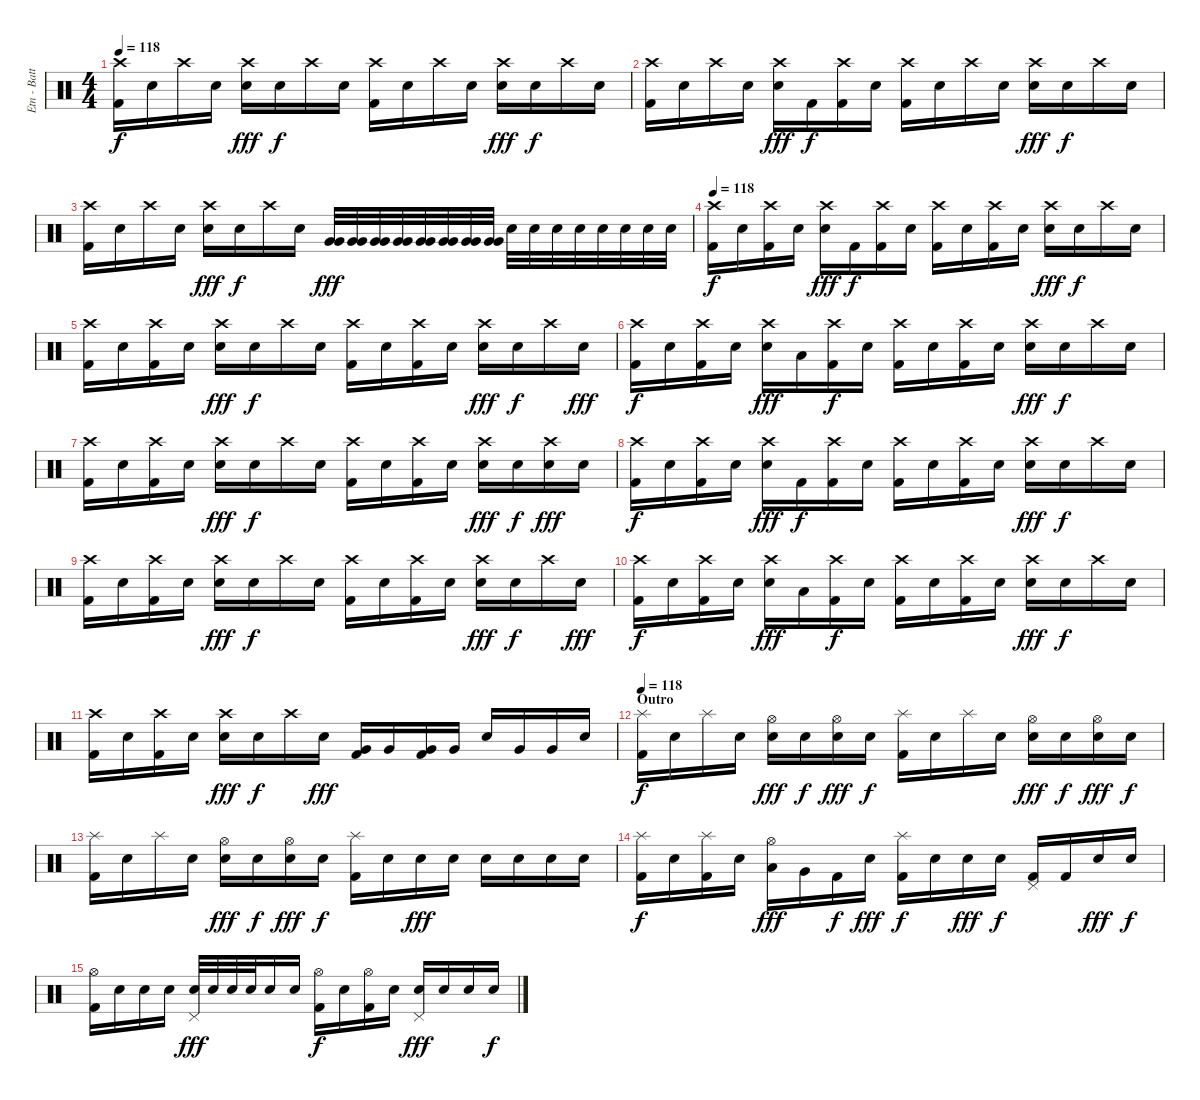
\track ("Etn - Batterie" "Etn - Batt") {instrument percussion}
\staff {score}
\articulation defaults
\ts (4 4)
\tempo 118
\clef neutral
\ks c
("Crash high (hit)" "Kick (hit) 2").16{dy f} "Snare (hit)".16 "Crash high (hit)".16 "Snare (hit)".16 ("Crash high (hit)" "Electric Snare (hit)").16{dy fff} "Snare (hit)".16{dy f} "Crash high (hit)".16 "Snare (hit)".16 ("Crash high (hit)" "Kick (hit) 2").16 "Snare (hit)".16 "Crash high (hit)".16 "Snare (hit)".16 ("Crash high (hit)" "Electric Snare (hit)").16{dy fff} "Snare (hit)".16{dy f} "Crash high (hit)".16 "Snare (hit)".16 |
("Crash high (hit)" "Kick (hit) 2").16 "Snare (hit)".16 "Crash high (hit)".16 "Snare (hit)".16 ("Crash high (hit)" "Electric Snare (hit)").16{dy fff} "Kick (hit) 2".16{dy f} ("Crash high (hit)" "Kick (hit) 2").16 "Snare (hit)".16 ("Crash high (hit)" "Kick (hit) 2").16 "Snare (hit)".16 "Crash high (hit)".16 "Snare (hit)".16 ("Crash high (hit)" "Electric Snare (hit)").16{dy fff} "Snare (hit)".16{dy f} "Crash high (hit)".16 "Snare (hit)".16 |
("Crash high (hit)" "Kick (hit) 2").16 "Snare (hit)".16 "Crash high (hit)".16 "Snare (hit)".16 ("Crash high (hit)" "Electric Snare (hit)").16{dy fff} "Snare (hit)".16{dy f} "Crash high (hit)".16 "Snare (hit)".16 ("Very Low Tom (hit)" "Very Low Tom (hit)").32{dy fff} ("Very Low Tom (hit)" "Very Low Tom (hit)").32 ("Very Low Tom (hit)" "Very Low Tom (hit)").32 ("Very Low Tom (hit)" "Very Low Tom (hit)").32 ("Very Low Tom (hit)" "Very Low Tom (hit)").32 ("Very Low Tom (hit)" "Very Low Tom (hit)").32 ("Very Low Tom (hit)" "Very Low Tom (hit)").32 ("Very Low Tom (hit)" "Very Low Tom (hit)").32 "Electric Snare (hit)".32 "Electric Snare (hit)".32 "Electric Snare (hit)".32 "Electric Snare (hit)".32 "Electric Snare (hit)".32 "Electric Snare (hit)".32 "Electric Snare (hit)".32 "Electric Snare (hit)".32 |
\section ("" "")
\tempo 118
("Crash high (hit)" "Kick (hit) 2").16{dy f volume 16 balance 8} "Snare (hit)".16 ("Crash high (hit)" "Kick (hit) 2").16 "Snare (hit)".16 ("Crash high (hit)" "Electric Snare (hit)").16{dy fff} "Kick (hit) 2".16{dy f} ("Crash high (hit)" "Kick (hit) 2").16 "Snare (hit)".16 ("Crash high (hit)" "Kick (hit) 2").16 "Snare (hit)".16 ("Crash high (hit)" "Kick (hit) 2").16 "Snare (hit)".16 ("Crash high (hit)" "Electric Snare (hit)").16{dy fff} "Snare (hit)".16{dy f} "Crash high (hit)".16 "Snare (hit)".16 |
("Crash high (hit)" "Kick (hit) 2").16 "Snare (hit)".16 ("Crash high (hit)" "Kick (hit) 2").16 "Snare (hit)".16 ("Crash high (hit)" "Electric Snare (hit)").16{dy fff} "Snare (hit)".16{dy f} "Crash high (hit)".16 "Snare (hit)".16 ("Crash high (hit)" "Kick (hit) 2").16 "Snare (hit)".16 ("Crash high (hit)" "Kick (hit) 2").16 "Snare (hit)".16 ("Crash high (hit)" "Electric Snare (hit)").16{dy fff} "Snare (hit)".16{dy f} "Crash high (hit)".16 "Electric Snare (hit)".16{dy fff} |
("Crash high (hit)" "Kick (hit) 2").16{dy f} "Snare (hit)".16 ("Crash high (hit)" "Kick (hit) 2").16 "Snare (hit)".16 ("Crash high (hit)" "Electric Snare (hit)").16{dy fff} "Low Tom (hit)".16 ("Crash high (hit)" "Kick (hit) 2").16{dy f} "Snare (hit)".16 ("Crash high (hit)" "Kick (hit) 2").16 "Snare (hit)".16 ("Crash high (hit)" "Kick (hit) 2").16 "Snare (hit)".16 ("Crash high (hit)" "Electric Snare (hit)").16{dy fff} "Snare (hit)".16{dy f} "Crash high (hit)".16 "Snare (hit)".16 |
("Crash high (hit)" "Kick (hit) 2").16 "Snare (hit)".16 ("Crash high (hit)" "Kick (hit) 2").16 "Snare (hit)".16 ("Crash high (hit)" "Electric Snare (hit)").16{dy fff} "Snare (hit)".16{dy f} "Crash high (hit)".16 "Snare (hit)".16 ("Crash high (hit)" "Kick (hit) 2").16 "Snare (hit)".16 ("Crash high (hit)" "Kick (hit) 2").16 "Snare (hit)".16 ("Crash high (hit)" "Electric Snare (hit)").16{dy fff} "Snare (hit)".16{dy f} ("Crash high (hit)" "Electric Snare (hit)").16{dy fff} "Electric Snare (hit)".16 |
("Crash high (hit)" "Kick (hit) 2").16{dy f} "Snare (hit)".16 ("Crash high (hit)" "Kick (hit) 2").16 "Snare (hit)".16 ("Crash high (hit)" "Electric Snare (hit)").16{dy fff} "Kick (hit) 2".16{dy f} ("Crash high (hit)" "Kick (hit) 2").16 "Snare (hit)".16 ("Crash high (hit)" "Kick (hit) 2").16 "Snare (hit)".16 ("Crash high (hit)" "Kick (hit) 2").16 "Snare (hit)".16 ("Crash high (hit)" "Electric Snare (hit)").16{dy fff} "Snare (hit)".16{dy f} "Crash high (hit)".16 "Snare (hit)".16 |
("Crash high (hit)" "Kick (hit) 2").16 "Snare (hit)".16 ("Crash high (hit)" "Kick (hit) 2").16 "Snare (hit)".16 ("Crash high (hit)" "Electric Snare (hit)").16{dy fff} "Snare (hit)".16{dy f} "Crash high (hit)".16 "Snare (hit)".16 ("Crash high (hit)" "Kick (hit) 2").16 "Snare (hit)".16 ("Crash high (hit)" "Kick (hit) 2").16 "Snare (hit)".16 ("Crash high (hit)" "Electric Snare (hit)").16{dy fff} "Snare (hit)".16{dy f} "Crash high (hit)".16 "Electric Snare (hit)".16{dy fff} |
("Crash high (hit)" "Kick (hit) 2").16{dy f} "Snare (hit)".16 ("Crash high (hit)" "Kick (hit) 2").16 "Snare (hit)".16 ("Crash high (hit)" "Electric Snare (hit)").16{dy fff} "Low Tom (hit)".16 ("Crash high (hit)" "Kick (hit) 2").16{dy f} "Snare (hit)".16 ("Crash high (hit)" "Kick (hit) 2").16 "Snare (hit)".16 ("Crash high (hit)" "Kick (hit) 2").16 "Snare (hit)".16 ("Crash high (hit)" "Electric Snare (hit)").16{dy fff} "Snare (hit)".16{dy f} "Crash high (hit)".16 "Snare (hit)".16 |
("Crash high (hit)" "Kick (hit) 2").16 "Snare (hit)".16 ("Crash high (hit)" "Kick (hit) 2").16 "Snare (hit)".16 ("Crash high (hit)" "Electric Snare (hit)").16{dy fff} "Snare (hit)".16{dy f} "Crash high (hit)".16 "Electric Snare (hit)".16{dy fff} ("Very Low Tom (hit)" "Kick (hit) 2").16 "Very Low Tom (hit)".16 ("Very Low Tom (hit)" "Kick (hit) 2").16 "Very Low Tom (hit)".16 "Electric Snare (hit)".16 "Very Low Tom (hit)".16 "Very Low Tom (hit)".16 "Electric Snare (hit)".16 |
\section ("" "Outro")
\tempo 118
("Splash (hit)" "Kick (hit) 2").16{dy f volume 16 balance 8} "Snare (hit)".16 "Splash (hit)".16 "Snare (hit)".16 ("Hi-Hat (open)" "Electric Snare (hit)").16{dy fff} "Snare (hit)".16{dy f} ("Hi-Hat (open)" "Electric Snare (hit)").16{dy fff} "Snare (hit)".16{dy f} ("Splash (hit)" "Kick (hit) 2").16 "Snare (hit)".16 "Splash (hit)".16 "Snare (hit)".16 ("Hi-Hat (open)" "Electric Snare (hit)").16{dy fff} "Snare (hit)".16{dy f} ("Hi-Hat (open)" "Electric Snare (hit)").16{dy fff} "Snare (hit)".16{dy f} |
("Splash (hit)" "Kick (hit) 2").16 "Snare (hit)".16 "Splash (hit)".16 "Snare (hit)".16 ("Hi-Hat (open)" "Electric Snare (hit)").16{dy fff} "Snare (hit)".16{dy f} ("Hi-Hat (open)" "Electric Snare (hit)").16{dy fff} "Snare (hit)".16{dy f} ("Splash (hit)" "Kick (hit) 2").16 "Snare (hit)".16 "Electric Snare (hit)".16{dy fff} "Electric Snare (hit)".16 "Electric Snare (hit)".16 "Electric Snare (hit)".16 "Electric Snare (hit)".16 "Electric Snare (hit)".16 |
("Splash (hit)" "Kick (hit) 2").16{dy f} "Snare (hit)".16 ("Splash (hit)" "Kick (hit) 2").16 "Snare (hit)".16 ("Hi-Hat (open)" "Low Tom (hit)").16{dy fff} "Very Low Tom (hit)".16 "Kick (hit) 2".16{dy f} "Electric Snare (hit)".16{dy fff} ("Splash (hit)" "Kick (hit) 2").16{dy f} "Snare (hit)".16 "Electric Snare (hit)".16{dy fff} "Snare (hit)".16{dy f} ("Pedal Hi-Hat (hit)" "Kick (hit) 2").16 "Kick (hit) 2".16 "Electric Snare (hit)".16{dy fff} "Snare (hit)".16{dy f} |
("Hi-Hat (open)" "Kick (hit) 2").16 "Snare (hit)".16 "Snare (hit)".16 "Snare (hit)".16 ("Pedal Hi-Hat (hit)" "Electric Snare (hit)").32{dy fff} "Electric Snare (hit)".32 "Electric Snare (hit)".32 "Electric Snare (hit)".32 "Electric Snare (hit)".16 "Electric Snare (hit)".16 ("Hi-Hat (open)" "Kick (hit) 2").16{dy f} "Snare (hit)".16 ("Hi-Hat (open)" "Kick (hit) 2").16 "Snare (hit)".16 ("Pedal Hi-Hat (hit)" "Electric Snare (hit)").16{dy fff} "Electric Snare (hit)".16 "Electric Snare (hit)".16 "Snare (hit)".16{dy f}
